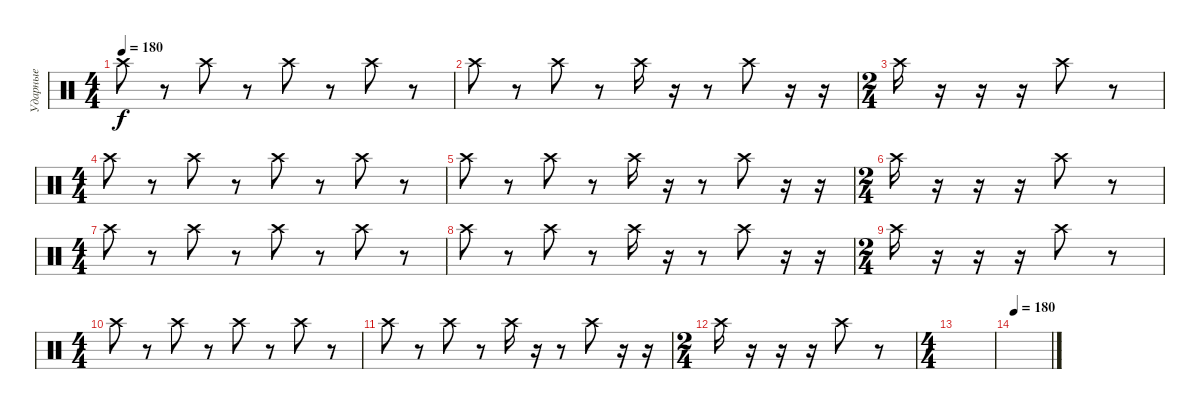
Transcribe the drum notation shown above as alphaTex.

\track ("Ударные" "Ударные") {instrument percussion}
\staff {score}
\articulation defaults
\ts (4 4)
\tempo 180
\clef neutral
\ks c "Crash high (hit)".8{dy f}
r.8 "Crash high (hit)".8 r.8 "Crash high (hit)".8 r.8 "Crash high (hit)".8 r.8 |
"Crash high (hit)".8 r.8 "Crash high (hit)".8 r.8 "Crash high (hit)".16 r.16 r.8 "Crash high (hit)".8 r.16 r.16 |
\ts (2 4)
"Crash high (hit)".16 r.16 r.16 r.16 "Crash high (hit)".8 r.8 |
\ts (4 4)
"Crash high (hit)".8 r.8 "Crash high (hit)".8 r.8 "Crash high (hit)".8 r.8 "Crash high (hit)".8 r.8 |
"Crash high (hit)".8 r.8 "Crash high (hit)".8 r.8 "Crash high (hit)".16 r.16 r.8 "Crash high (hit)".8 r.16 r.16 |
\ts (2 4)
"Crash high (hit)".16 r.16 r.16 r.16 "Crash high (hit)".8 r.8 |
\ts (4 4)
"Crash high (hit)".8 r.8 "Crash high (hit)".8 r.8 "Crash high (hit)".8 r.8 "Crash high (hit)".8 r.8 |
"Crash high (hit)".8 r.8 "Crash high (hit)".8 r.8 "Crash high (hit)".16 r.16 r.8 "Crash high (hit)".8 r.16 r.16 |
\ts (2 4)
"Crash high (hit)".16 r.16 r.16 r.16 "Crash high (hit)".8 r.8 |
\ts (4 4)
"Crash high (hit)".8 r.8 "Crash high (hit)".8 r.8 "Crash high (hit)".8 r.8 "Crash high (hit)".8 r.8 |
"Crash high (hit)".8 r.8 "Crash high (hit)".8 r.8 "Crash high (hit)".16 r.16 r.8 "Crash high (hit)".8 r.16 r.16 |
\ts (2 4)
"Crash high (hit)".16 r.16 r.16 r.16 "Crash high (hit)".8 r.8 |
\ts (4 4)
|
\tempo 180
